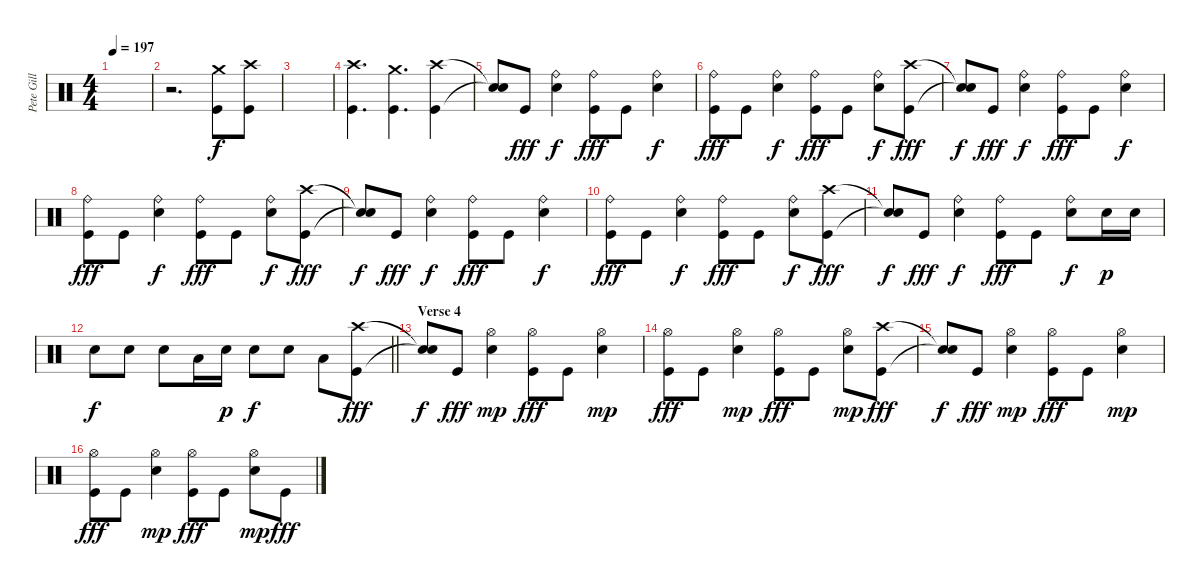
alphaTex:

\track ("Pete Gill" "Pete Gill") {instrument percussion}
\staff {score}
\articulation defaults
\ts (4 4)
\tempo 197
\clef neutral
\ks c
|
r.2{d} ("Crash medium (hit)" "Kick (hit)").8 ("Crash high (hit)" "Kick (hit)").8 |
|
("Crash high (hit)" "Kick (hit)").4{d} ("Crash medium (hit)" "Kick (hit)").4{d} ("Crash high (hit)" "Kick (hit)").4 |
("Snare (hit)"{t} "Snare (hit)"{t}).8{dy f} "Kick (hit)".8{dy fff} ("Ride (bell)" "Electric Snare (hit)").4{dy f} ("Ride (bell)" "Kick (hit)").8{dy fff} "Kick (hit)".8 ("Ride (bell)" "Electric Snare (hit)").4{dy f} |
("Ride (bell)" "Kick (hit)").8{dy fff} "Kick (hit)".8 ("Ride (bell)" "Electric Snare (hit)").4{dy f} ("Ride (bell)" "Kick (hit)").8{dy fff} "Kick (hit)".8 ("Ride (bell)" "Electric Snare (hit)").8{dy f} ("Crash high (hit)" "Kick (hit)").8{dy fff} |
("Snare (hit)"{t} "Snare (hit)"{t}).8{dy f} "Kick (hit)".8{dy fff} ("Ride (bell)" "Electric Snare (hit)").4{dy f} ("Ride (bell)" "Kick (hit)").8{dy fff} "Kick (hit)".8 ("Ride (bell)" "Electric Snare (hit)").4{dy f} |
("Ride (bell)" "Kick (hit)").8{dy fff} "Kick (hit)".8 ("Ride (bell)" "Electric Snare (hit)").4{dy f} ("Ride (bell)" "Kick (hit)").8{dy fff} "Kick (hit)".8 ("Ride (bell)" "Electric Snare (hit)").8{dy f} ("Crash high (hit)" "Kick (hit)").8{dy fff} |
("Snare (hit)"{t} "Snare (hit)"{t}).8{dy f} "Kick (hit)".8{dy fff} ("Ride (bell)" "Electric Snare (hit)").4{dy f} ("Ride (bell)" "Kick (hit)").8{dy fff} "Kick (hit)".8 ("Ride (bell)" "Electric Snare (hit)").4{dy f} |
("Ride (bell)" "Kick (hit)").8{dy fff} "Kick (hit)".8 ("Ride (bell)" "Electric Snare (hit)").4{dy f} ("Ride (bell)" "Kick (hit)").8{dy fff} "Kick (hit)".8 ("Ride (bell)" "Electric Snare (hit)").8{dy f} ("Crash high (hit)" "Kick (hit)").8{dy fff} |
("Snare (hit)"{t} "Snare (hit)"{t}).8{dy f} "Kick (hit)".8{dy fff} ("Ride (bell)" "Electric Snare (hit)").4{dy f} ("Ride (bell)" "Kick (hit)").8{dy fff} "Kick (hit)".8 ("Ride (bell)" "Electric Snare (hit)").8{dy f} "Electric Snare (hit)".16{dy p} "Electric Snare (hit)".16 |
\barLineRight lightlight "Electric Snare (hit)".8{dy f} "Electric Snare (hit)".8 "Electric Snare (hit)".8 "Low Tom (hit)".16 "Electric Snare (hit)".16{dy p} "Electric Snare (hit)".8{dy f} "Electric Snare (hit)".8 "Low Tom (hit)".8
("Crash high (hit)" "Kick (hit)").8{dy fff} |
\section ("" "Verse 4")
("Snare (hit)"{t} "Snare (hit)"{t}).8{dy f} "Kick (hit)".8{dy fff} ("Hi-Hat (open)" "Electric Snare (hit)").4{dy mp} ("Hi-Hat (open)" "Kick (hit)").8{dy fff} "Kick (hit)".8 ("Hi-Hat (open)" "Electric Snare (hit)").4{dy mp} |
("Hi-Hat (open)" "Kick (hit)").8{dy fff} "Kick (hit)".8 ("Hi-Hat (open)" "Electric Snare (hit)").4{dy mp} ("Hi-Hat (open)" "Kick (hit)").8{dy fff} "Kick (hit)".8 ("Hi-Hat (open)" "Electric Snare (hit)").8{dy mp} ("Crash high (hit)" "Kick (hit)").8{dy fff} |
("Snare (hit)"{t} "Snare (hit)"{t}).8{dy f} "Kick (hit)".8{dy fff} ("Hi-Hat (open)" "Electric Snare (hit)").4{dy mp} ("Hi-Hat (open)" "Kick (hit)").8{dy fff} "Kick (hit)".8 ("Hi-Hat (open)" "Electric Snare (hit)").4{dy mp} |
("Hi-Hat (open)" "Kick (hit)").8{dy fff} "Kick (hit)".8 ("Hi-Hat (open)" "Electric Snare (hit)").4{dy mp} ("Hi-Hat (open)" "Kick (hit)").8{dy fff} "Kick (hit)".8 ("Hi-Hat (open)" "Electric Snare (hit)").8{dy mp} "Kick (hit)".8{dy fff}
